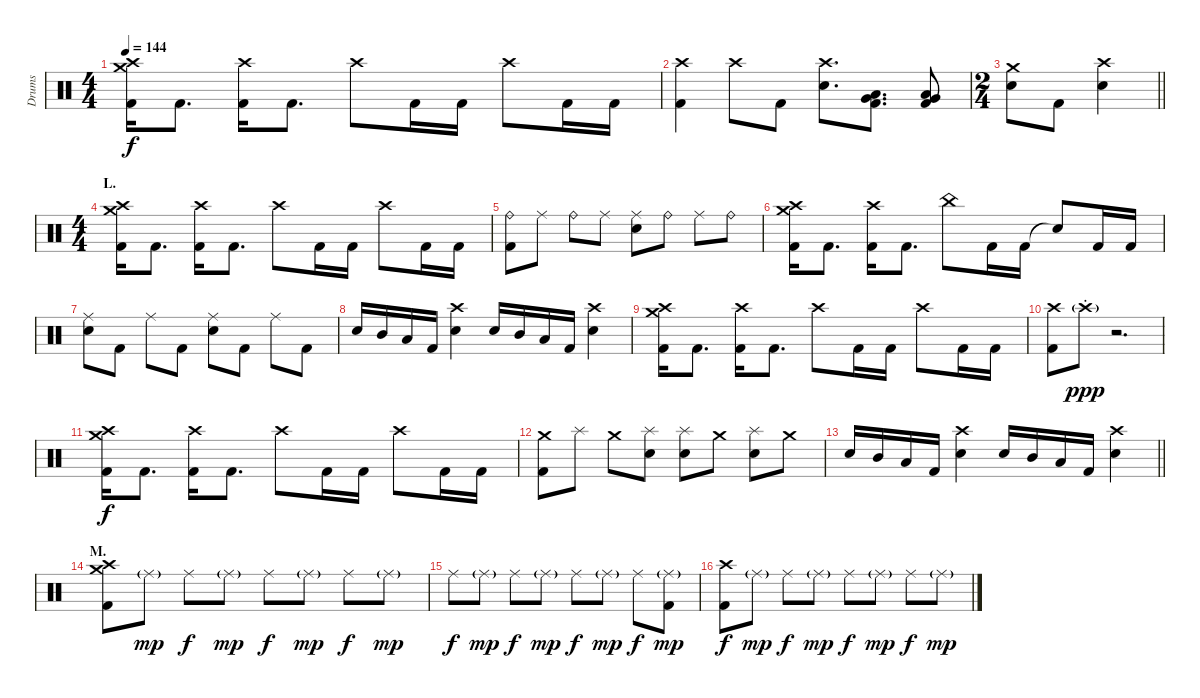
\track ("Drums" "Drums") {instrument percussion}
\staff {score}
\articulation defaults
\ts (4 4)
\tempo 144
\clef neutral
\ks c
("Crash medium (hit)" "Crash high (hit)" "Kick (hit) 2").16{dy f} "Kick (hit) 2".8{d} ("Crash high (hit)" "Kick (hit) 2").16 "Kick (hit) 2".8{d} "Crash high (hit)".8 "Kick (hit) 2".16 "Kick (hit) 2".16 "Crash high (hit)".8 "Kick (hit) 2".16 "Kick (hit) 2".16 |
("Crash high (hit)" "Kick (hit) 2").4 "Crash high (hit)".8 "Kick (hit) 2".8 ("Crash high (hit)" "Electric Snare (hit)").8{d} ("Very Low Tom (hit)" "Low Floor Tom (hit)" "Kick (hit) 2").8{d} ("Very Low Tom (hit)" "Low Floor Tom (hit)" "Kick (hit) 2").8 |
\ts (2 4)
\barLineRight lightlight
("Crash medium (hit)" "Electric Snare (hit)").8 "Kick (hit) 2".8 ("Crash high (hit)" "Electric Snare (hit)").4 |
\ts (4 4)
\section ("" "L.")
("Crash medium (hit)" "Crash high (hit)" "Kick (hit) 2").16 "Kick (hit) 2".8{d} ("Crash high (hit)" "Kick (hit) 2").16 "Kick (hit) 2".8{d} "Crash high (hit)".8 "Kick (hit) 2".16 "Kick (hit) 2".16 "Crash high (hit)".8 "Kick (hit) 2".16 "Kick (hit) 2".16 |
("Ride (bell)" "Kick (hit) 2").8 "Ride (middle)".8 "Ride (bell)".8 "Ride (middle)".8 ("Ride (middle)" "Electric Snare (hit)").8 "Ride (bell)".8 "Ride (middle)".8 "Ride (bell)".8 |
("Crash medium (hit)" "Crash high (hit)" "Kick (hit) 2").16 "Kick (hit) 2".8{d} ("Crash high (hit)" "Kick (hit) 2").16 "Kick (hit) 2".8{d} "China (hit)".8 "Kick (hit) 2".16 "Kick (hit) 2".16 "Snare (hit)"{t}.8 "Kick (hit) 2".16 "Kick (hit) 2".16 |
("Ride (middle)" "Electric Snare (hit)").8 "Kick (hit) 2".8 "Ride (middle)".8 "Kick (hit) 2".8 ("Ride (middle)" "Electric Snare (hit)").8 "Kick (hit) 2".8 "Ride (middle)".8 "Kick (hit) 2".8 |
"Electric Snare (hit)".16 "Mid Tom (hit)".16 "Low Tom (hit)".16 "Kick (hit) 2".16 ("Crash high (hit)" "Electric Snare (hit)").4 "Electric Snare (hit)".16 "Mid Tom (hit)".16 "Low Tom (hit)".16 "Kick (hit) 2".16 ("Crash high (hit)" "Electric Snare (hit)").4 |
("Crash medium (hit)" "Crash high (hit)" "Kick (hit) 2").16 "Kick (hit) 2".8{d} ("Crash high (hit)" "Kick (hit) 2").16 "Kick (hit) 2".8{d} "Crash high (hit)".8 "Kick (hit) 2".16 "Kick (hit) 2".16 "Crash high (hit)".8 "Kick (hit) 2".16 "Kick (hit) 2".16 |
("Crash high (hit)" "Kick (hit) 2").8 "Crash high (hit)"{g st}.8{dy ppp} r.2{d} |
("Crash medium (hit)" "Crash high (hit)" "Kick (hit) 2").16{dy f} "Kick (hit) 2".8{d} ("Crash high (hit)" "Kick (hit) 2").16 "Kick (hit) 2".8{d} "Crash high (hit)".8 "Kick (hit) 2".16 "Kick (hit) 2".16 "Crash high (hit)".8 "Kick (hit) 2".16 "Kick (hit) 2".16 |
("Crash medium (hit)" "Kick (hit) 2").8 "Splash (hit)".8 "Crash medium (hit)".8 ("Splash (hit)" "Electric Snare (hit)").8 ("Splash (hit)" "Electric Snare (hit)").8 "Crash medium (hit)".8 ("Splash (hit)" "Electric Snare (hit)").8 "Crash medium (hit)".8 |
\barLineRight lightlight "Electric Snare (hit)".16 "Mid Tom (hit)".16 "Low Tom (hit)".16 "Kick (hit) 2".16
("Crash high (hit)" "Electric Snare (hit)").4 "Electric Snare (hit)".16 "Mid Tom (hit)".16 "Low Tom (hit)".16 "Kick (hit) 2".16 ("Crash high (hit)" "Electric Snare (hit)").4 |
\section ("" "M.")
("Crash medium (hit)" "Crash high (hit)" "Kick (hit) 2").8 "Ride (middle)"{g}.8{dy mp} "Ride (middle)".8{dy f} "Ride (middle)"{g}.8{dy mp} "Ride (middle)".8{dy f} "Ride (middle)"{g}.8{dy mp} "Ride (middle)".8{dy f} "Ride (middle)"{g}.8{dy mp} |
"Ride (middle)".8{dy f} "Ride (middle)"{g}.8{dy mp} "Ride (middle)".8{dy f} "Ride (middle)"{g}.8{dy mp} "Ride (middle)".8{dy f} "Ride (middle)"{g}.8{dy mp} "Ride (middle)".8{dy f} ("Ride (middle)"{g} "Kick (hit) 2").8{dy mp} |
("Crash high (hit)" "Kick (hit) 2").8{dy f} "Ride (middle)"{g}.8{dy mp} "Ride (middle)".8{dy f} "Ride (middle)"{g}.8{dy mp} "Ride (middle)".8{dy f} "Ride (middle)"{g}.8{dy mp} "Ride (middle)".8{dy f} "Ride (middle)"{g}.8{dy mp}
